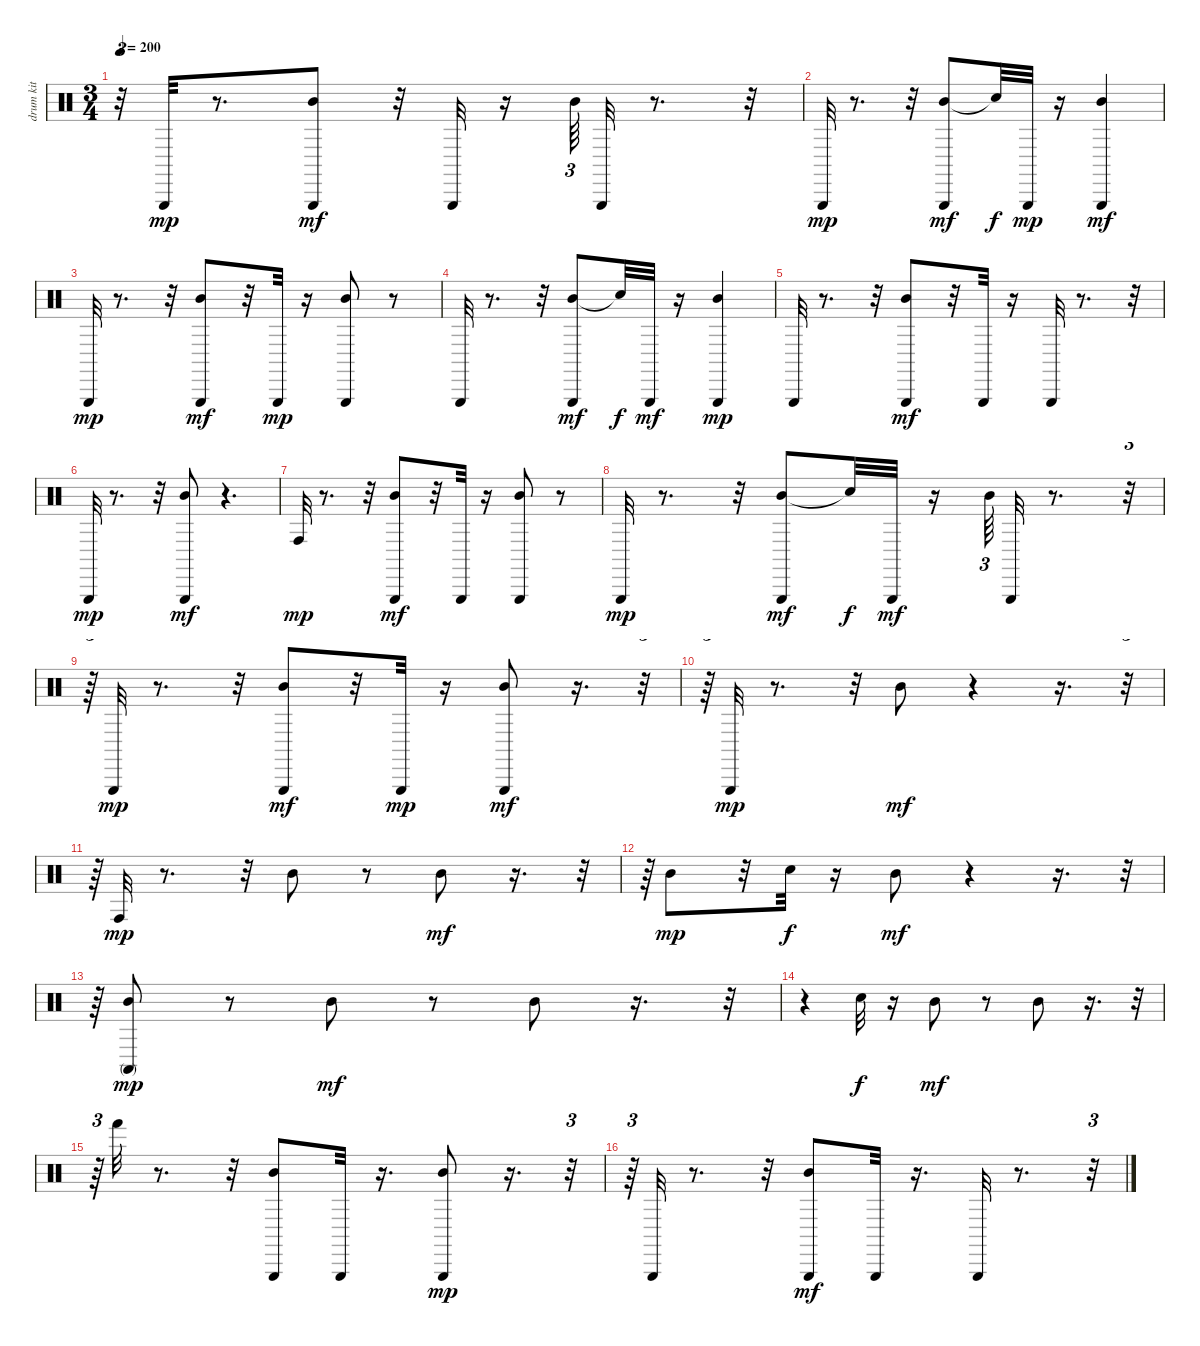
\track (" drum kit (hi-hat/cymbals)" " drum kit ") {instrument percussion}
\staff {score}
\articulation defaults
\ts (3 4)
\tempo 200
\clef neutral
\ks c
r.32{tu (3 2) dy mf} "Triangle (hit)".32{dy mp} r.8{d} ("Mid Tom (hit)" "Triangle (hit)").8{dy mf} r.32 "Triangle (hit)".32 r.16 "Mid Tom (hit)".64{tu (3 2)} "Triangle (hit)".32 r.8{d} r.32 |
"Triangle (hit)".32{dy mp} r.8{d} r.32 ("Mid Tom (hit)" "Triangle (hit)").8{dy mf} "Snare (hit)"{t}.32{dy f} "Triangle (hit)".32{dy mp} r.16 ("Mid Tom (hit)" "Triangle (hit)").4{dy mf} |
"Triangle (hit)".32{dy mp} r.8{d} r.32 ("Mid Tom (hit)" "Triangle (hit)").8{dy mf} r.32 "Triangle (hit)".32{dy mp} r.16 ("Mid Tom (hit)" "Triangle (hit)").8 r.8 |
"Triangle (hit)".32 r.8{d} r.32 ("Mid Tom (hit)" "Triangle (hit)").8{dy mf} "Snare (hit)"{t}.32{dy f} "Triangle (hit)".32{dy mf} r.16 ("Mid Tom (hit)" "Triangle (hit)").4{dy mp} |
"Triangle (hit)".32 r.8{d} r.32 ("Mid Tom (hit)" "Triangle (hit)").8{dy mf} r.32 "Triangle (hit)".32 r.16 "Triangle (hit)".32 r.8{d} r.32 |
"Triangle (hit)".32{dy mp} r.8{d} r.32 ("Mid Tom (hit)" "Triangle (hit)").8{dy mf} r.4{d} |
"Conga high (hit)".32{dy mp} r.8{d} r.32 ("Mid Tom (hit)" "Triangle (hit)").8{dy mf} r.32 "Triangle (hit)".32 r.16 ("Mid Tom (hit)" "Triangle (hit)").8 r.8 |
"Triangle (hit)".32{dy mp} r.8{d} r.32 ("Mid Tom (hit)" "Triangle (hit)").8{dy mf} "Snare (hit)"{t}.32{dy f} "Triangle (hit)".32{dy mf} r.16 "Mid Tom (hit)".64{tu (3 2)} "Triangle (hit)".32 r.8{d} r.32{tu (3 2)} |
r.64{tu (3 2)} "Triangle (hit)".32{dy mp} r.8{d} r.32 ("Mid Tom (hit)" "Triangle (hit)").8{dy mf} r.32 "Triangle (hit)".32{dy mp} r.16 ("Mid Tom (hit)" "Triangle (hit)").8{dy mf} r.16{d} r.32{tu (3 2)} |
r.64{tu (3 2)} "Triangle (hit)".32{dy mp} r.8{d} r.32 "Mid Tom (hit)".8{dy mf} r.4 r.16{d} r.32{tu (3 2)} |
r.64{tu (3 2)} "Conga high (hit)".32{dy mp} r.8{d} r.32 "Mid Tom (hit)".8 r.8 "Mid Tom (hit)".8{dy mf} r.16{d} r.32{tu (3 2)} |
r.64{tu (3 2)} "Mid Tom (hit)".8{dy mp} r.32 "Snare (hit)".32{dy f} r.16 "Mid Tom (hit)".8{dy mf} r.4 r.16{d} r.32{tu (3 2)} |
r.64{tu (3 2)} ("Mid Tom (hit)" "Conga high (mute)").8{dy mp} r.8 "Mid Tom (hit)".8{dy mf} r.8 "Mid Tom (hit)".8 r.16{d} r.32{tu (3 2)} |
r.4{tu (3 2)} "Snare (hit)".32{dy f} r.16 "Mid Tom (hit)".8{dy mf} r.8 "Mid Tom (hit)".8 r.16{d} r.32{tu (3 2)} |
r.64{tu (3 2)} "Hand (hit)".32 r.8{d} r.32 ("Mid Tom (hit)" "Triangle (hit)").8 "Triangle (hit)".32 r.16{d} ("Mid Tom (hit)" "Triangle (hit)").8{dy mp} r.16{d} r.32{tu (3 2)} |
r.64{tu (3 2)} "Triangle (hit)".32 r.8{d} r.32 ("Mid Tom (hit)" "Triangle (hit)").8{dy mf} "Triangle (hit)".32 r.16{d} "Triangle (hit)".32 r.8{d} r.32{tu (3 2)}
